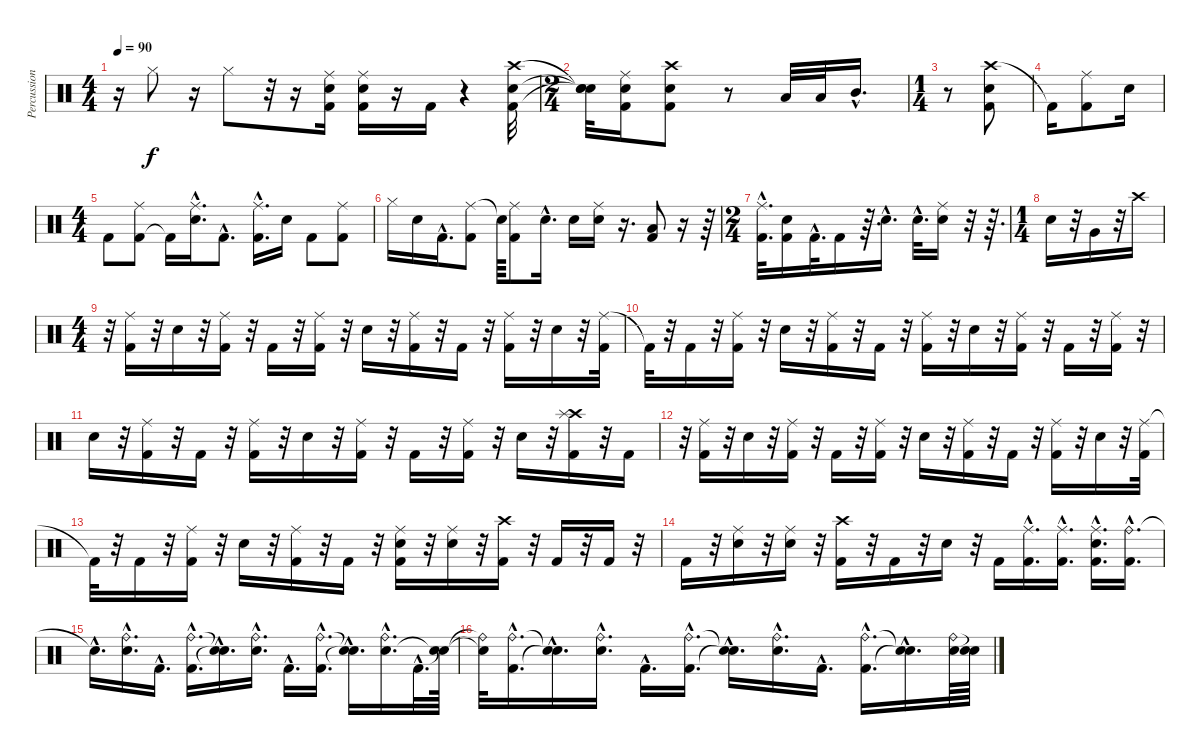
\track ("Percussioni" "Percussion") {instrument percussion}
\staff {score}
\articulation defaults
\ts (4 4)
\tempo 90
\clef neutral
\ks c
r.16{dy f} "Hi-Hat (closed)".8 r.16 "Hi-Hat (closed)".8 r.32 r.16 ("Ride (middle)" "Kick (hit) 2" "Electric Snare (hit)").16 ("Ride (middle)" "Kick (hit) 2" "Electric Snare (hit)").16 r.16 "Kick (hit) 2".16 r.4 ("Crash high (hit)" "Electric Snare (hit)" "Kick (hit) 2").32 |
\ts (2 4)
("Snare (hit)"{t} "Snare (hit)"{t} "Snare (hit)"{t}).32 ("Ride (middle)" "Electric Snare (hit)" "Kick (hit) 2").16 ("Crash high (hit)" "Electric Snare (hit)" "Kick (hit) 2").8 r.8 "Low Tom (hit)".32 "Low Tom (hit)".32 "Mid Tom (hit)"{hac}.16{d} |
\ts (1 4)
r.8 ("Crash high (hit)" "Electric Snare (hit)" "Kick (hit) 2").8 |
"Kick (hit) 2"{t}.16 ("Ride (middle)" "Kick (hit) 2").8 "Electric Snare (hit)".16 |
\ts (4 4)
"Kick (hit) 2".8 ("Kick (hit) 2" "Ride (middle)").8 "Kick (hit) 2"{t}.16 ("Electric Snare (hit)"{hac} "Ride (middle)"{hac}).16{d} "Kick (hit) 2"{hac}.8{d} ("Ride (middle)"{hac} "Kick (hit) 2"{hac}).16{d} "Electric Snare (hit)".16 "Kick (hit) 2".8 ("Ride (middle)" "Kick (hit) 2").8 |
"Hi-Hat (closed)".16 "Electric Snare (hit)".16 "Kick (hit) 2"{hac}.16{d} ("Ride (middle)" "Kick (hit) 2").8 "Snare (hit)"{t}.64 ("Ride (middle)" "Kick (hit) 2").8 "Electric Snare (hit)"{hac}.16{d} "Electric Snare (hit)".16 ("Ride (middle)" "Electric Snare (hit)").16 r.16{d} ("Low Tom (hit)" "Kick (hit) 2").8 r.16 r.64 |
\ts (2 4)
("Ride (middle)"{hac} "Kick (hit) 2"{hac}).32{d} ("Snare (hit) 2" "Kick (hit) 2").16 "Kick (hit) 2"{hac}.32{d} "Kick (hit) 2".16 r.64{d} "Electric Snare (hit)"{hac}.16{d} "Electric Snare (hit)"{hac}.32{d} ("Ride (middle)" "Electric Snare (hit)").16 r.32 r.64{d} |
\ts (1 4)
"Electric Snare (hit)".16 r.32 "Very Low Tom (hit)".16 r.32 "Crash high (hit)".16 |
\ts (4 4)
r.32 ("Ride (middle)" "Kick (hit) 2").16 r.32 "Electric Snare (hit)".16 r.32 ("Ride (middle)" "Kick (hit) 2").16 r.32 "Kick (hit) 2".16 r.32 ("Ride (middle)" "Kick (hit) 2").16 r.32 "Electric Snare (hit)".16 r.32 ("Ride (middle)" "Kick (hit) 2").16 r.32 "Kick (hit) 2".16 r.32 ("Ride (middle)" "Kick (hit) 2").16 r.32 "Electric Snare (hit)".16 r.32 ("Ride (middle)" "Kick (hit) 2").32 |
"Kick (hit) 2"{t}.32 r.32 "Kick (hit) 2".16 r.32 ("Ride (middle)" "Kick (hit) 2").16 r.32 "Electric Snare (hit)".16 r.32 ("Ride (middle)" "Kick (hit) 2").16 r.32 "Kick (hit) 2".16 r.32 ("Ride (middle)" "Kick (hit) 2").16 r.32 "Electric Snare (hit)".16 r.32 ("Ride (middle)" "Kick (hit) 2").16 r.32 "Kick (hit) 2".16 r.32 ("Ride (middle)" "Kick (hit) 2").16 r.32 |
"Electric Snare (hit)".16 r.32 ("Ride (middle)" "Kick (hit) 2").16 r.32 "Kick (hit) 2".16 r.32 ("Ride (middle)" "Kick (hit) 2").16 r.32 "Electric Snare (hit)".16 r.32 ("Ride (middle)" "Kick (hit) 2").16 r.32 "Kick (hit) 2".16 r.32 ("Ride (middle)" "Kick (hit) 2").16 r.32 "Electric Snare (hit)".16 r.32 ("Crash high (hit)" "Splash (hit)" "Kick (hit) 2").16 r.32 "Kick (hit) 2".16 |
r.32 ("Ride (middle)" "Kick (hit) 2").16 r.32 "Electric Snare (hit)".16 r.32 ("Ride (middle)" "Kick (hit) 2").16 r.32 "Kick (hit) 2".16 r.32 ("Ride (middle)" "Kick (hit) 2").16 r.32 "Electric Snare (hit)".16 r.32 ("Ride (middle)" "Kick (hit) 2").16 r.32 "Kick (hit) 2".16 r.32 ("Ride (middle)" "Kick (hit) 2").16 r.32 "Electric Snare (hit)".16 r.32 ("Ride (middle)" "Kick (hit) 2").32 |
"Kick (hit) 2"{t}.32 r.32 "Kick (hit) 2".16 r.32 ("Ride (middle)" "Kick (hit) 2").16 r.32 "Electric Snare (hit)".16 r.32 ("Ride (middle)" "Kick (hit) 2").16 r.32 "Kick (hit) 2".16 r.32 ("Ride (middle)" "Kick (hit) 2" "Electric Snare (hit)").16 r.32 ("Ride (middle)" "Electric Snare (hit)").16 r.32 ("Crash high (hit)" "Kick (hit) 2").16 r.32 "Kick (hit) 2".16 r.32 "Kick (hit) 2".16 r.32 |
"Kick (hit) 2".16 r.32 ("Ride (middle)" "Electric Snare (hit)").16 r.32 ("Ride (middle)" "Electric Snare (hit)").16 r.32 ("Crash high (hit)" "Kick (hit) 2").16 r.32 "Kick (hit) 2".16 r.32 "Electric Snare (hit)".16 r.32 "Kick (hit) 2".16 ("Ride (middle)"{hac} "Kick (hit) 2"{hac}).16{d} ("Ride (middle)"{hac} "Kick (hit) 2"{hac}).16{d} ("Ride (middle)"{hac} "Kick (hit) 2"{hac} "Electric Snare (hit)"{hac}).16{d} ("Ride (bell)"{hac} "Kick (hit) 2"{hac}).16{d} |
"Electric Snare (hit)"{hac t}.16{d} ("Ride (bell)"{hac} "Electric Snare (hit)"{hac}).16{d} "Kick (hit) 2"{hac}.16{d} ("Ride (bell)"{hac} "Kick (hit) 2"{hac}).16{d} ("Snare (hit)"{hac t} "Electric Snare (hit)"{hac t}).16{d} ("Ride (bell)"{hac} "Electric Snare (hit)"{hac}).16{d} "Kick (hit) 2"{hac}.16{d} ("Ride (bell)"{hac} "Kick (hit) 2"{hac}).16{d} ("Snare (hit)"{hac t} "Snare (hit)"{hac t}).16{d} ("Ride (bell)"{hac} "Electric Snare (hit)"{hac}).16{d} "Kick (hit) 2"{hac}.32{d} ("Snare (hit)"{t} "Snare (hit)"{t}).64 |
("Ride (bell)"{t} "Snare (hit)"{t}).32 ("Ride (bell)"{hac} "Kick (hit) 2"{hac}).16{d} ("Snare (hit)"{hac t} "Snare (hit)"{hac t}).16{d} ("Ride (bell)"{hac} "Electric Snare (hit)"{hac}).16{d} "Kick (hit) 2"{hac}.16{d} ("Ride (bell)"{hac} "Kick (hit) 2"{hac}).16{d} ("Snare (hit)"{hac t} "Snare (hit)"{hac t}).16{d} ("Ride (bell)"{hac} "Electric Snare (hit)"{hac}).16{d} "Kick (hit) 2"{hac}.16{d} ("Ride (bell)"{hac} "Kick (hit) 2"{hac}).16{d} ("Snare (hit)"{hac t} "Snare (hit)"{hac t}).16{d} ("Ride (bell)" "Electric Snare (hit)").64 ("Snare (hit)"{t} "Snare (hit)"{t}).64
